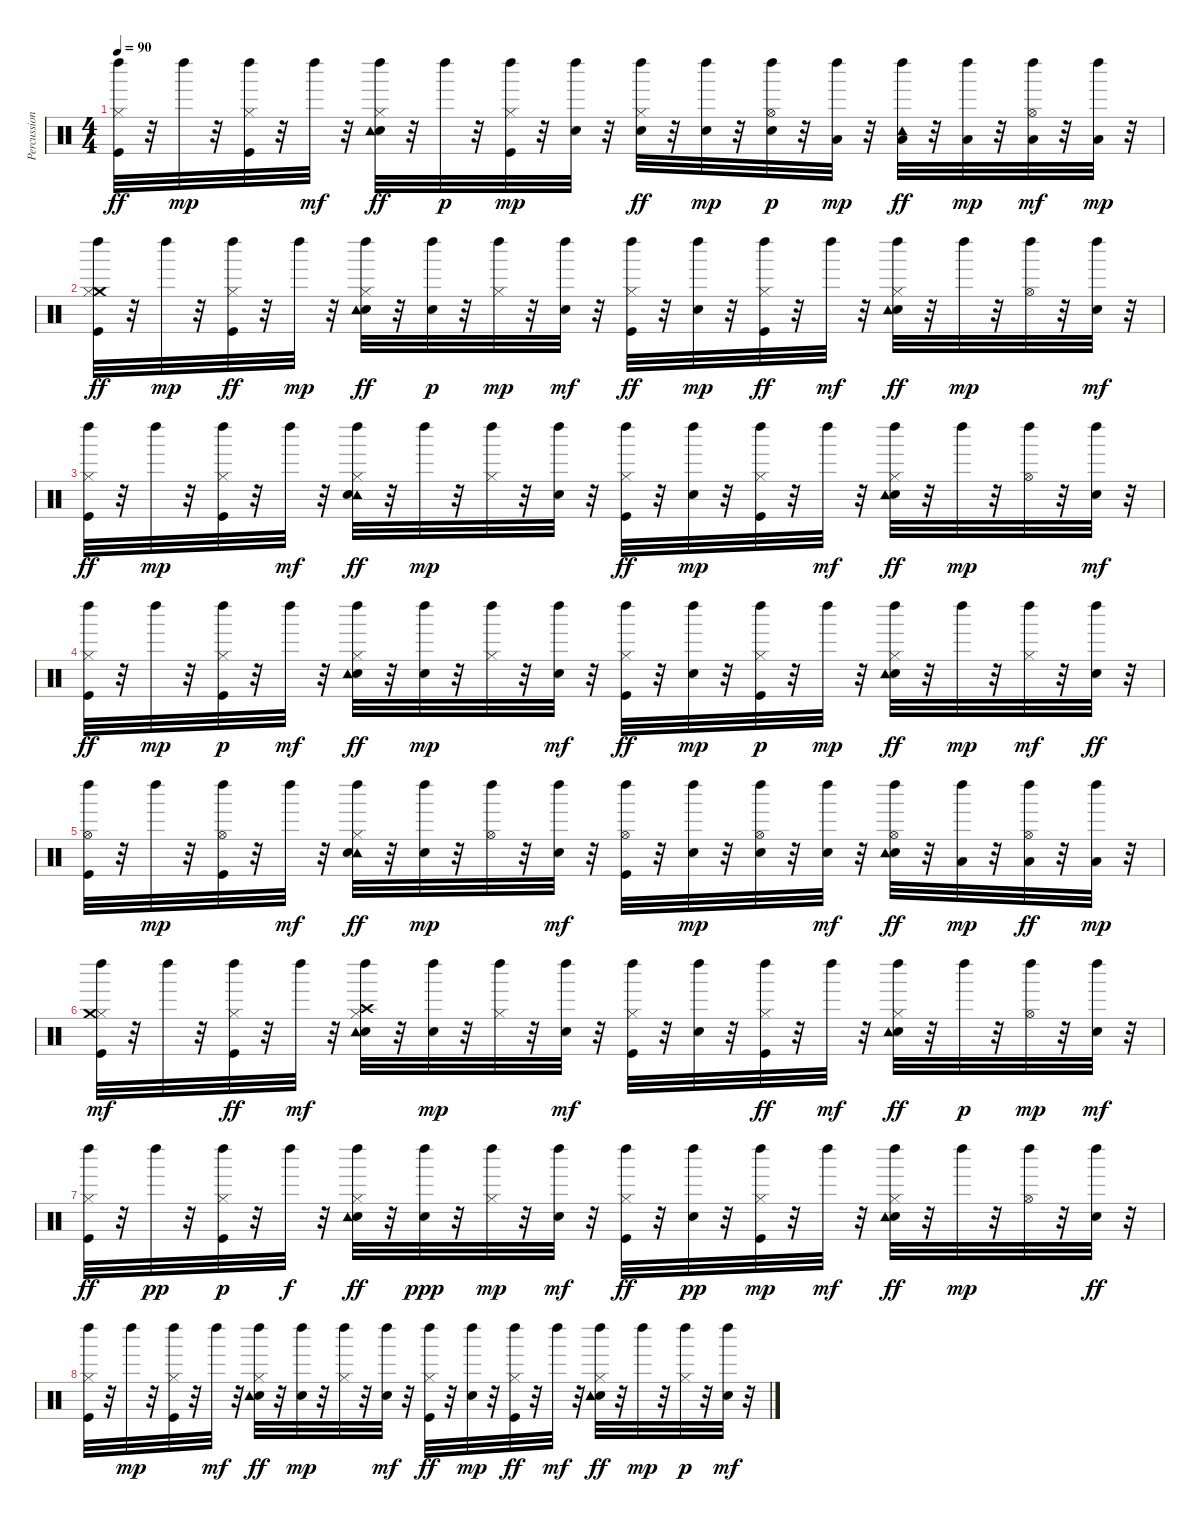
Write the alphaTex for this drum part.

\track ("Percussions" "Percussion") {instrument percussion}
\staff {score}
\articulation defaults
\ts (4 4)
\tempo 90
\clef neutral
\ks c
("Hi-Hat (closed)" "Left Maraca (hit)" "Kick (hit)").32{dy ff} r.32 "Left Maraca (hit)".32{dy mp} r.32 ("Hi-Hat (closed)" "Kick (hit)" "Left Maraca (hit)").32 r.32 "Left Maraca (hit)".32{dy mf} r.32 ("Hi-Hat (closed)" "Electric Snare (hit)" "Tambourine (hit)" "Left Maraca (hit)").32{dy ff} r.32 "Left Maraca (hit)".32{dy p} r.32 ("Hi-Hat (closed)" "Kick (hit)" "Left Maraca (hit)").32{dy mp} r.32 ("Electric Snare (hit)" "Left Maraca (hit)").32 r.32 ("Left Maraca (hit)" "Hi-Hat (closed)" "Electric Snare (hit)").32{dy ff} r.32 ("Electric Snare (hit)" "Left Maraca (hit)").32{dy mp} r.32 ("Electric Snare (hit)" "Left Maraca (hit)" "Hi-Hat (open)").32{dy p} r.32 ("Low Floor Tom (hit)" "Left Maraca (hit)").32{dy mp} r.32 ("Low Floor Tom (hit)" "Tambourine (hit)" "Left Maraca (hit)").32{dy ff} r.32 ("Low Tom (hit)" "Left Maraca (hit)").32{dy mp} r.32 ("Low Floor Tom (hit)" "Left Maraca (hit)" "Hi-Hat (open)").32{dy mf} r.32 ("Low Tom (hit)" "Left Maraca (hit)").32{dy mp} r.32 |
("Kick (hit)" "Left Maraca (hit)" "Crash medium (hit)" "Hi-Hat (closed)").32{dy ff} r.32 "Left Maraca (hit)".32{dy mp} r.32 ("Left Maraca (hit)" "Hi-Hat (closed)" "Kick (hit)").32{dy ff} r.32 "Left Maraca (hit)".32{dy mp} r.32 ("Left Maraca (hit)" "Hi-Hat (closed)" "Electric Snare (hit)" "Tambourine (hit)").32{dy ff} r.32 ("Electric Snare (hit)" "Left Maraca (hit)").32{dy p} r.32 ("Hi-Hat (closed)" "Left Maraca (hit)").32{dy mp} r.32 ("Electric Snare (hit)" "Left Maraca (hit)").32{dy mf} r.32 ("Hi-Hat (closed)" "Left Maraca (hit)" "Kick (hit)").32{dy ff} r.32 ("Electric Snare (hit)" "Left Maraca (hit)").32{dy mp} r.32 ("Hi-Hat (closed)" "Left Maraca (hit)" "Kick (hit)").32{dy ff} r.32 "Left Maraca (hit)".32{dy mf} r.32 ("Hi-Hat (closed)" "Electric Snare (hit)" "Tambourine (hit)" "Left Maraca (hit)").32{dy ff} r.32 "Left Maraca (hit)".32{dy mp} r.32 ("Hi-Hat (open)" "Left Maraca (hit)").32 r.32 ("Electric Snare (hit)" "Left Maraca (hit)").32{dy mf} r.32 |
("Kick (hit)" "Hi-Hat (closed)" "Left Maraca (hit)").32{dy ff} r.32 "Left Maraca (hit)".32{dy mp} r.32 ("Hi-Hat (closed)" "Kick (hit)" "Left Maraca (hit)").32 r.32 "Left Maraca (hit)".32{dy mf} r.32 ("Hi-Hat (closed)" "Tambourine (hit)" "Electric Snare (hit)" "Left Maraca (hit)").32{dy ff} r.32 "Left Maraca (hit)".32{dy mp} r.32 ("Hi-Hat (closed)" "Left Maraca (hit)").32 r.32 ("Electric Snare (hit)" "Left Maraca (hit)").32 r.32 ("Hi-Hat (closed)" "Kick (hit)" "Left Maraca (hit)").32{dy ff} r.32 ("Electric Snare (hit)" "Left Maraca (hit)").32{dy mp} r.32 ("Hi-Hat (closed)" "Kick (hit)" "Left Maraca (hit)").32 r.32 "Left Maraca (hit)".32{dy mf} r.32 ("Electric Snare (hit)" "Tambourine (hit)" "Hi-Hat (closed)" "Left Maraca (hit)").32{dy ff} r.32 "Left Maraca (hit)".32{dy mp} r.32 ("Hi-Hat (open)" "Left Maraca (hit)").32 r.32 ("Left Maraca (hit)" "Electric Snare (hit)").32{dy mf} r.32 |
("Hi-Hat (closed)" "Left Maraca (hit)" "Kick (hit)").32{dy ff} r.32 "Left Maraca (hit)".32{dy mp} r.32 ("Hi-Hat (closed)" "Kick (hit)" "Left Maraca (hit)").32{dy p} r.32 "Left Maraca (hit)".32{dy mf} r.32 ("Hi-Hat (closed)" "Electric Snare (hit)" "Tambourine (hit)" "Left Maraca (hit)").32{dy ff} r.32 ("Electric Snare (hit)" "Left Maraca (hit)").32{dy mp} r.32 ("Hi-Hat (closed)" "Left Maraca (hit)").32 r.32 ("Electric Snare (hit)" "Left Maraca (hit)").32{dy mf} r.32 ("Hi-Hat (closed)" "Kick (hit)" "Left Maraca (hit)").32{dy ff} r.32 ("Electric Snare (hit)" "Left Maraca (hit)").32{dy mp} r.32 ("Hi-Hat (closed)" "Kick (hit)" "Left Maraca (hit)").32{dy p} r.32 "Left Maraca (hit)".32{dy mp} r.32 ("Electric Snare (hit)" "Tambourine (hit)" "Left Maraca (hit)" "Hi-Hat (closed)").32{dy ff} r.32 "Left Maraca (hit)".32{dy mp} r.32 ("Left Maraca (hit)" "Hi-Hat (closed)").32{dy mf} r.32 ("Left Maraca (hit)" "Electric Snare (hit)").32{dy ff} r.32 |
("Hi-Hat (open)" "Kick (hit)" "Left Maraca (hit)").32 r.32 "Left Maraca (hit)".32{dy mp} r.32 ("Hi-Hat (open)" "Kick (hit)" "Left Maraca (hit)").32 r.32 "Left Maraca (hit)".32{dy mf} r.32 ("Tambourine (hit)" "Hi-Hat (closed)" "Electric Snare (hit)" "Left Maraca (hit)").32{dy ff} r.32 ("Left Maraca (hit)" "Electric Snare (hit)").32{dy mp} r.32 ("Hi-Hat (open)" "Left Maraca (hit)").32 r.32 ("Electric Snare (hit)" "Left Maraca (hit)").32{dy mf} r.32 ("Hi-Hat (open)" "Kick (hit)" "Left Maraca (hit)").32 r.32 ("Electric Snare (hit)" "Left Maraca (hit)").32{dy mp} r.32 ("Electric Snare (hit)" "Hi-Hat (open)" "Left Maraca (hit)").32 r.32 ("Electric Snare (hit)" "Left Maraca (hit)").32{dy mf} r.32 ("Electric Snare (hit)" "Tambourine (hit)" "Left Maraca (hit)" "Hi-Hat (open)").32{dy ff} r.32 ("Low Tom (hit)" "Left Maraca (hit)").32{dy mp} r.32 ("Low Floor Tom (hit)" "Left Maraca (hit)" "Hi-Hat (open)").32{dy ff} r.32 ("Low Floor Tom (hit)" "Left Maraca (hit)").32{dy mp} r.32 |
("Kick (hit)" "Left Maraca (hit)" "Hi-Hat (closed)" "Crash medium (hit)").32{dy mf} r.32 "Left Maraca (hit)".32 r.32 ("Left Maraca (hit)" "Hi-Hat (closed)" "Kick (hit)").32{dy ff} r.32 "Left Maraca (hit)".32{dy mf} r.32 ("Hi-Hat (closed)" "Electric Snare (hit)" "Left Maraca (hit)" "Crash high (hit)" "Tambourine (hit)").32 r.32 ("Electric Snare (hit)" "Left Maraca (hit)").32{dy mp} r.32 ("Hi-Hat (closed)" "Left Maraca (hit)").32 r.32 ("Electric Snare (hit)" "Left Maraca (hit)").32{dy mf} r.32 ("Kick (hit)" "Left Maraca (hit)" "Hi-Hat (closed)").32 r.32 ("Electric Snare (hit)" "Left Maraca (hit)").32 r.32 ("Left Maraca (hit)" "Hi-Hat (closed)" "Kick (hit)").32{dy ff} r.32 "Left Maraca (hit)".32{dy mf} r.32 ("Hi-Hat (closed)" "Electric Snare (hit)" "Left Maraca (hit)" "Tambourine (hit)").32{dy ff} r.32 "Left Maraca (hit)".32{dy p} r.32 ("Hi-Hat (open)" "Left Maraca (hit)").32{dy mp} r.32 ("Electric Snare (hit)" "Left Maraca (hit)").32{dy mf} r.32 |
("Hi-Hat (closed)" "Left Maraca (hit)" "Kick (hit)").32{dy ff} r.32 "Left Maraca (hit)".32{dy pp} r.32 ("Hi-Hat (closed)" "Kick (hit)" "Left Maraca (hit)").32{dy p} r.32 "Left Maraca (hit)".32{dy f} r.32 ("Electric Snare (hit)" "Tambourine (hit)" "Hi-Hat (closed)" "Left Maraca (hit)").32{dy ff} r.32 ("Electric Snare (hit)" "Left Maraca (hit)").32{dy ppp} r.32 ("Hi-Hat (closed)" "Left Maraca (hit)").32{dy mp} r.32 ("Electric Snare (hit)" "Left Maraca (hit)").32{dy mf} r.32 ("Hi-Hat (closed)" "Kick (hit)" "Left Maraca (hit)").32{dy ff} r.32 ("Electric Snare (hit)" "Left Maraca (hit)").32{dy pp} r.32 ("Hi-Hat (closed)" "Kick (hit)" "Left Maraca (hit)").32{dy mp} r.32 "Left Maraca (hit)".32{dy mf} r.32 ("Hi-Hat (closed)" "Electric Snare (hit)" "Tambourine (hit)" "Left Maraca (hit)").32{dy ff} r.32 "Left Maraca (hit)".32{dy mp} r.32 ("Hi-Hat (open)" "Left Maraca (hit)").32 r.32 ("Electric Snare (hit)" "Left Maraca (hit)").32{dy ff} r.32 |
("Hi-Hat (closed)" "Kick (hit)" "Left Maraca (hit)").32 r.32 "Left Maraca (hit)".32{dy mp} r.32 ("Hi-Hat (closed)" "Kick (hit)" "Left Maraca (hit)").32 r.32 "Left Maraca (hit)".32{dy mf} r.32 ("Hi-Hat (closed)" "Electric Snare (hit)" "Tambourine (hit)" "Left Maraca (hit)").32{dy ff} r.32 ("Electric Snare (hit)" "Left Maraca (hit)").32{dy mp} r.32 ("Hi-Hat (closed)" "Left Maraca (hit)").32 r.32 ("Electric Snare (hit)" "Left Maraca (hit)").32{dy mf} r.32 ("Hi-Hat (closed)" "Kick (hit)" "Left Maraca (hit)").32{dy ff} r.32 ("Electric Snare (hit)" "Left Maraca (hit)").32{dy mp} r.32 ("Left Maraca (hit)" "Hi-Hat (closed)" "Kick (hit)").32{dy ff} r.32 "Left Maraca (hit)".32{dy mf} r.32 ("Electric Snare (hit)" "Tambourine (hit)" "Left Maraca (hit)" "Hi-Hat (closed)").32{dy ff} r.32 "Left Maraca (hit)".32{dy mp} r.32 ("Left Maraca (hit)" "Hi-Hat (closed)").32{dy p} r.32 ("Left Maraca (hit)" "Electric Snare (hit)").32{dy mf} r.32
